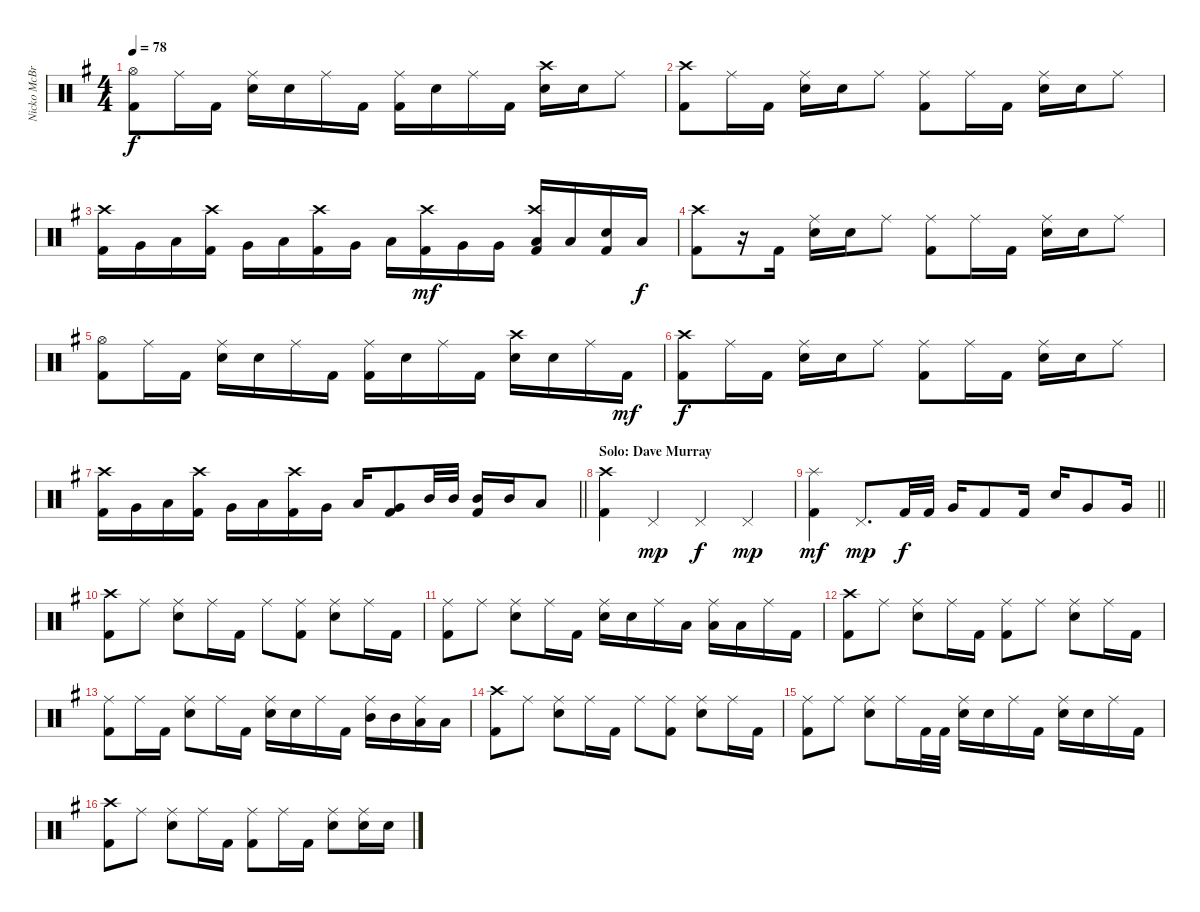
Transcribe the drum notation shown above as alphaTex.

\track ("Nicko McBrain" "Nicko McBr") {instrument percussion}
\staff {score}
\articulation defaults
\ts (4 4)
\tempo 78
\clef neutral
\ks g
("Hi-Hat (open)" "Kick (hit) 2").8{dy f} "Ride (middle)".16 "Kick (hit) 2".16 ("Ride (middle)" "Electric Snare (hit)").16 "Electric Snare (hit)".16 "Ride (middle)".16 "Kick (hit) 2".16 ("Ride (middle)" "Kick (hit) 2").16 "Electric Snare (hit)".16 "Ride (middle)".16 "Kick (hit) 2".16 ("Crash high (hit)" "Electric Snare (hit)").16 "Electric Snare (hit)".16 "Ride (middle)".8 |
("Crash high (hit)" "Kick (hit) 2").8 "Ride (middle)".16 "Kick (hit) 2".16 ("Ride (middle)" "Electric Snare (hit)").16 "Electric Snare (hit)".16 "Ride (middle)".8 ("Ride (middle)" "Kick (hit) 2").8 "Ride (middle)".16 "Kick (hit) 2".16 ("Ride (middle)" "Electric Snare (hit)").16 "Electric Snare (hit)".16 "Ride (middle)".8 |
("Crash high (hit)" "Kick (hit) 2").16 "Very Low Tom (hit)".16 "Low Tom (hit)".16 ("Crash high (hit)" "Kick (hit) 2").16 "Very Low Tom (hit)".16 "Low Tom (hit)".16 ("Crash high (hit)" "Kick (hit) 2").16 "Very Low Tom (hit)".16 "Low Tom (hit)".16 ("Crash high (hit)" "Kick (hit) 2").16{dy mf} "Very Low Tom (hit)".16 "Very Low Tom (hit)".16 ("Crash high (hit)" "Low Tom (hit)" "Kick (hit) 2").16 "Low Tom (hit)".16 ("Electric Snare (hit)" "Kick (hit) 2").16 "Low Tom (hit)".16{dy f} |
("Crash high (hit)" "Kick (hit) 2").8 r.16 "Kick (hit) 2".16 ("Ride (middle)" "Electric Snare (hit)").16 "Electric Snare (hit)".16 "Ride (middle)".8 ("Ride (middle)" "Kick (hit) 2").8 "Ride (middle)".16 "Kick (hit) 2".16 ("Ride (middle)" "Electric Snare (hit)").16 "Electric Snare (hit)".16 "Ride (middle)".8 |
("Hi-Hat (open)" "Kick (hit) 2").8 "Ride (middle)".16 "Kick (hit) 2".16 ("Ride (middle)" "Electric Snare (hit)").16 "Electric Snare (hit)".16 "Ride (middle)".16 "Kick (hit) 2".16 ("Ride (middle)" "Kick (hit) 2").16 "Electric Snare (hit)".16 "Ride (middle)".16 "Kick (hit) 2".16 ("Crash high (hit)" "Electric Snare (hit)").16 "Electric Snare (hit)".16 "Ride (middle)".16 "Kick (hit) 2".16{dy mf} |
("Crash high (hit)" "Kick (hit) 2").8{dy f} "Ride (middle)".16 "Kick (hit) 2".16 ("Ride (middle)" "Electric Snare (hit)").16 "Electric Snare (hit)".16 "Ride (middle)".8 ("Ride (middle)" "Kick (hit) 2").8 "Ride (middle)".16 "Kick (hit) 2".16 ("Ride (middle)" "Electric Snare (hit)").16 "Electric Snare (hit)".16 "Ride (middle)".8 |
\barLineRight lightlight
("Crash high (hit)" "Kick (hit) 2").16 "Very Low Tom (hit)".16 "Low Tom (hit)".16 ("Crash high (hit)" "Kick (hit) 2").16 "Very Low Tom (hit)".16 "Low Tom (hit)".16 ("Crash high (hit)" "Kick (hit) 2").16 "Very Low Tom (hit)".16 "Low Tom (hit)".16 ("Very Low Tom (hit)" "Kick (hit) 2").8 "Mid Tom (hit)".32 "Mid Tom (hit)".32 ("Mid Tom (hit)" "Kick (hit) 2").16 "Mid Tom (hit)".16 "Low Tom (hit)".8 |
\section ("" "Solo: Dave Murray")
("Crash high (hit)" "Kick (hit) 2").4 "Pedal Hi-Hat (hit)".4{dy mp} "Pedal Hi-Hat (hit)".4{dy f} "Pedal Hi-Hat (hit)".4{dy mp} |
\barLineRight lightlight
("Splash (hit)" "Kick (hit) 2").4{dy mf} "Pedal Hi-Hat (hit)".8{d dy mp} "Kick (hit) 2".32{dy f} "Kick (hit) 2".32 "Very Low Tom (hit)".16 "Kick (hit) 2".8 "Kick (hit) 2".16 "Electric Snare (hit)".16 "Very Low Tom (hit)".8 "Very Low Tom (hit)".16 |
("Crash high (hit)" "Kick (hit) 2").8 "Ride (middle)".8 ("Ride (middle)" "Electric Snare (hit)").8 "Ride (middle)".16 "Kick (hit) 2".16 "Ride (middle)".8 ("Ride (middle)" "Kick (hit) 2").8 ("Ride (middle)" "Electric Snare (hit)").8 "Ride (middle)".16 "Kick (hit) 2".16 |
("Ride (middle)" "Kick (hit) 2").8 "Ride (middle)".8 ("Ride (middle)" "Electric Snare (hit)").8 "Ride (middle)".16 "Kick (hit) 2".16 ("Ride (middle)" "Electric Snare (hit)").16 "Electric Snare (hit)".16 "Ride (middle)".16 "Low Tom (hit)".16 ("Ride (middle)" "Low Tom (hit)").16 "Low Tom (hit)".16 "Ride (middle)".16 "Kick (hit) 2".16 |
("Crash high (hit)" "Kick (hit) 2").8 "Ride (middle)".8 ("Ride (middle)" "Electric Snare (hit)").8 "Ride (middle)".16 "Kick (hit) 2".16 ("Ride (middle)" "Kick (hit) 2").8 "Ride (middle)".8 ("Ride (middle)" "Electric Snare (hit)").8 "Ride (middle)".16 "Kick (hit) 2".16 |
("Ride (middle)" "Kick (hit) 2").8 "Ride (middle)".16 "Kick (hit) 2".16 ("Ride (middle)" "Electric Snare (hit)").8 "Ride (middle)".16 "Kick (hit) 2".16 ("Ride (middle)" "Electric Snare (hit)").16 "Electric Snare (hit)".16 "Ride (middle)".16 "Kick (hit) 2".16 ("Ride (middle)" "Mid Tom (hit)").16 "Mid Tom (hit)".16 ("Ride (middle)" "Low Tom (hit)").16 "Low Tom (hit)".16 |
("Crash high (hit)" "Kick (hit) 2").8 "Ride (middle)".8 ("Ride (middle)" "Electric Snare (hit)").8 "Ride (middle)".16 "Kick (hit) 2".16 "Ride (middle)".8 ("Ride (middle)" "Kick (hit) 2").8 ("Ride (middle)" "Electric Snare (hit)").8 "Ride (middle)".16 "Kick (hit) 2".16 |
("Ride (middle)" "Kick (hit) 2").8 "Ride (middle)".8 ("Ride (middle)" "Electric Snare (hit)").8 "Ride (middle)".16 "Kick (hit) 2".32 "Kick (hit) 2".32 ("Ride (middle)" "Electric Snare (hit)").16 "Electric Snare (hit)".16 "Ride (middle)".16 "Kick (hit) 2".16 ("Ride (middle)" "Electric Snare (hit)").16 "Electric Snare (hit)".16 "Ride (middle)".16 "Kick (hit) 2".16 |
("Crash high (hit)" "Kick (hit) 2").8 "Ride (middle)".8 ("Ride (middle)" "Electric Snare (hit)").8 "Ride (middle)".16 "Kick (hit) 2".16 ("Ride (middle)" "Kick (hit) 2").8 "Ride (middle)".16 "Kick (hit) 2".16 ("Ride (middle)" "Electric Snare (hit)").8 ("Ride (middle)" "Electric Snare (hit)").16 "Electric Snare (hit)".16
